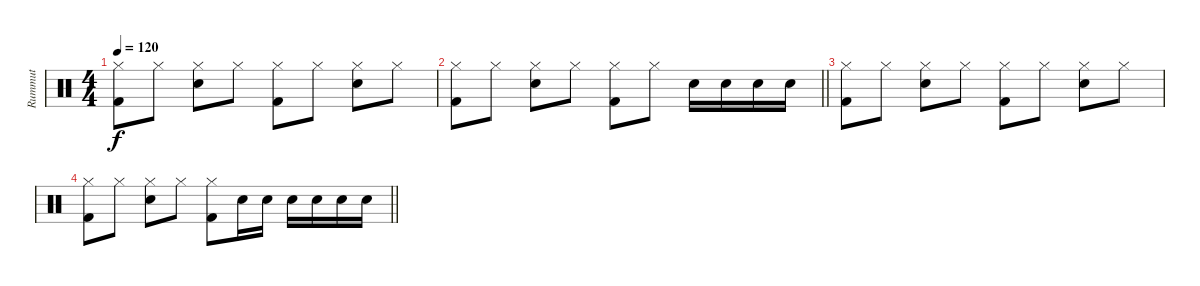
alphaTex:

\track ("Rummut" "Rummut") {instrument percussion}
\staff {score}
\articulation defaults
\ts (4 4)
\tempo 120
\clef neutral
\ks c
("Hi-Hat (closed)" "Kick (hit) 2").8{dy f volume 9} "Hi-Hat (closed)".8 ("Hi-Hat (closed)" "Electric Snare (hit)").8 "Hi-Hat (closed)".8 ("Hi-Hat (closed)" "Kick (hit) 2").8 "Hi-Hat (closed)".8 ("Hi-Hat (closed)" "Electric Snare (hit)").8 "Hi-Hat (closed)".8 |
\barLineRight lightlight
("Hi-Hat (closed)" "Kick (hit) 2").8 "Hi-Hat (closed)".8 ("Hi-Hat (closed)" "Electric Snare (hit)").8 "Hi-Hat (closed)".8 ("Hi-Hat (closed)" "Kick (hit) 2").8 "Hi-Hat (closed)".8 "Electric Snare (hit)".16 "Electric Snare (hit)".16 "Electric Snare (hit)".16 "Electric Snare (hit)".16 |
("Hi-Hat (closed)" "Kick (hit) 2").8{volume 8} "Hi-Hat (closed)".8 ("Hi-Hat (closed)" "Electric Snare (hit)").8 "Hi-Hat (closed)".8 ("Hi-Hat (closed)" "Kick (hit) 2").8 "Hi-Hat (closed)".8 ("Hi-Hat (closed)" "Electric Snare (hit)").8 "Hi-Hat (closed)".8 |
\barLineRight lightlight
("Hi-Hat (closed)" "Kick (hit) 2").8 "Hi-Hat (closed)".8 ("Hi-Hat (closed)" "Electric Snare (hit)").8 "Hi-Hat (closed)".8 ("Hi-Hat (closed)" "Kick (hit) 2").8 "Electric Snare (hit)".16 "Electric Snare (hit)".16 "Electric Snare (hit)".16 "Electric Snare (hit)".16 "Electric Snare (hit)".16 "Electric Snare (hit)".16
